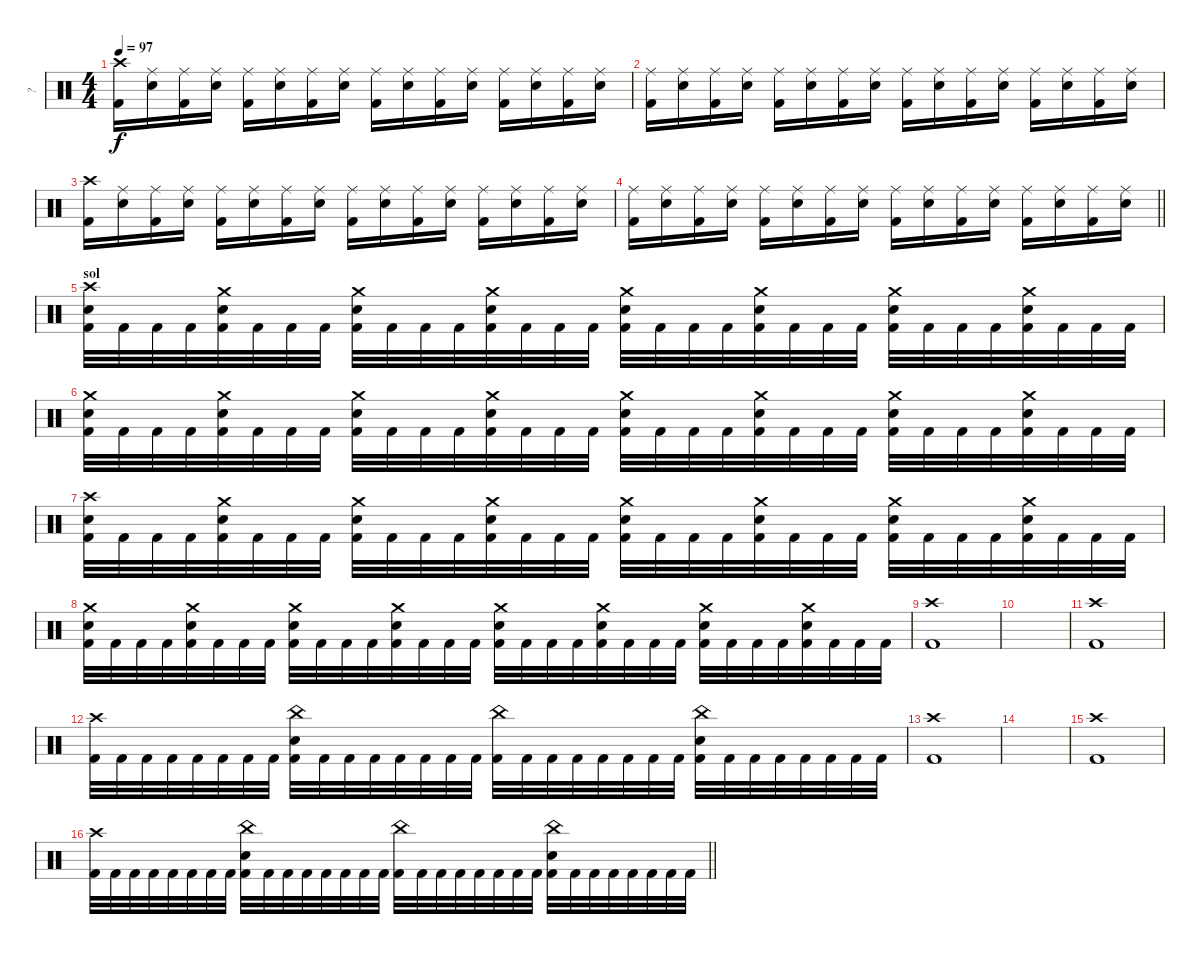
\track ("?" "?") {instrument percussion}
\staff {score}
\articulation defaults
\ts (4 4)
\tempo 97
\clef neutral
\ks c
("Crash high (hit)" "Kick (hit) 2").16{dy f} ("Ride (middle)" "Electric Snare (hit)").16 ("Ride (middle)" "Kick (hit) 2").16 ("Ride (middle)" "Electric Snare (hit)").16 ("Ride (middle)" "Kick (hit) 2").16 ("Ride (middle)" "Electric Snare (hit)").16 ("Ride (middle)" "Kick (hit) 2").16 ("Ride (middle)" "Electric Snare (hit)").16 ("Ride (middle)" "Kick (hit) 2").16 ("Ride (middle)" "Electric Snare (hit)").16 ("Ride (middle)" "Kick (hit) 2").16 ("Ride (middle)" "Electric Snare (hit)").16 ("Ride (middle)" "Kick (hit) 2").16 ("Ride (middle)" "Electric Snare (hit)").16 ("Ride (middle)" "Kick (hit) 2").16 ("Ride (middle)" "Electric Snare (hit)").16 |
("Ride (middle)" "Kick (hit) 2").16 ("Ride (middle)" "Electric Snare (hit)").16 ("Ride (middle)" "Kick (hit) 2").16 ("Ride (middle)" "Electric Snare (hit)").16 ("Ride (middle)" "Kick (hit) 2").16 ("Ride (middle)" "Electric Snare (hit)").16 ("Ride (middle)" "Kick (hit) 2").16 ("Ride (middle)" "Electric Snare (hit)").16 ("Ride (middle)" "Kick (hit) 2").16 ("Ride (middle)" "Electric Snare (hit)").16 ("Ride (middle)" "Kick (hit) 2").16 ("Ride (middle)" "Electric Snare (hit)").16 ("Ride (middle)" "Kick (hit) 2").16 ("Ride (middle)" "Electric Snare (hit)").16 ("Ride (middle)" "Kick (hit) 2").16 ("Ride (middle)" "Electric Snare (hit)").16 |
("Crash high (hit)" "Kick (hit) 2").16 ("Ride (middle)" "Electric Snare (hit)").16 ("Ride (middle)" "Kick (hit) 2").16 ("Ride (middle)" "Electric Snare (hit)").16 ("Ride (middle)" "Kick (hit) 2").16 ("Ride (middle)" "Electric Snare (hit)").16 ("Ride (middle)" "Kick (hit) 2").16 ("Ride (middle)" "Electric Snare (hit)").16 ("Ride (middle)" "Kick (hit) 2").16 ("Ride (middle)" "Electric Snare (hit)").16 ("Ride (middle)" "Kick (hit) 2").16 ("Ride (middle)" "Electric Snare (hit)").16 ("Ride (middle)" "Kick (hit) 2").16 ("Ride (middle)" "Electric Snare (hit)").16 ("Ride (middle)" "Kick (hit) 2").16 ("Ride (middle)" "Electric Snare (hit)").16 |
\barLineRight lightlight
("Ride (middle)" "Kick (hit) 2").16 ("Ride (middle)" "Electric Snare (hit)").16 ("Ride (middle)" "Kick (hit) 2").16 ("Ride (middle)" "Electric Snare (hit)").16 ("Ride (middle)" "Kick (hit) 2").16 ("Ride (middle)" "Electric Snare (hit)").16 ("Ride (middle)" "Kick (hit) 2").16 ("Ride (middle)" "Electric Snare (hit)").16 ("Ride (middle)" "Kick (hit) 2").16 ("Ride (middle)" "Electric Snare (hit)").16 ("Ride (middle)" "Kick (hit) 2").16 ("Ride (middle)" "Electric Snare (hit)").16 ("Ride (middle)" "Kick (hit) 2").16 ("Ride (middle)" "Electric Snare (hit)").16 ("Ride (middle)" "Kick (hit) 2").16 ("Ride (middle)" "Electric Snare (hit)").16 |
\section ("" "sol")
("Crash high (hit)" "Electric Snare (hit)" "Kick (hit) 2").32 "Kick (hit) 2".32 "Kick (hit) 2".32 "Kick (hit) 2".32 ("Crash medium (hit)" "Electric Snare (hit)" "Kick (hit) 2").32 "Kick (hit) 2".32 "Kick (hit) 2".32 "Kick (hit) 2".32 ("Crash medium (hit)" "Electric Snare (hit)" "Kick (hit) 2").32 "Kick (hit) 2".32 "Kick (hit) 2".32 "Kick (hit) 2".32 ("Crash medium (hit)" "Electric Snare (hit)" "Kick (hit) 2").32 "Kick (hit) 2".32 "Kick (hit) 2".32 "Kick (hit) 2".32 ("Crash medium (hit)" "Electric Snare (hit)" "Kick (hit) 2").32 "Kick (hit) 2".32 "Kick (hit) 2".32 "Kick (hit) 2".32 ("Crash medium (hit)" "Electric Snare (hit)" "Kick (hit) 2").32 "Kick (hit) 2".32 "Kick (hit) 2".32 "Kick (hit) 2".32 ("Crash medium (hit)" "Electric Snare (hit)" "Kick (hit) 2").32 "Kick (hit) 2".32 "Kick (hit) 2".32 "Kick (hit) 2".32 ("Crash medium (hit)" "Electric Snare (hit)" "Kick (hit) 2").32 "Kick (hit) 2".32 "Kick (hit) 2".32 "Kick (hit) 2".32 |
("Crash medium (hit)" "Electric Snare (hit)" "Kick (hit) 2").32 "Kick (hit) 2".32 "Kick (hit) 2".32 "Kick (hit) 2".32 ("Crash medium (hit)" "Electric Snare (hit)" "Kick (hit) 2").32 "Kick (hit) 2".32 "Kick (hit) 2".32 "Kick (hit) 2".32 ("Crash medium (hit)" "Electric Snare (hit)" "Kick (hit) 2").32 "Kick (hit) 2".32 "Kick (hit) 2".32 "Kick (hit) 2".32 ("Crash medium (hit)" "Electric Snare (hit)" "Kick (hit) 2").32 "Kick (hit) 2".32 "Kick (hit) 2".32 "Kick (hit) 2".32 ("Crash medium (hit)" "Electric Snare (hit)" "Kick (hit) 2").32 "Kick (hit) 2".32 "Kick (hit) 2".32 "Kick (hit) 2".32 ("Crash medium (hit)" "Electric Snare (hit)" "Kick (hit) 2").32 "Kick (hit) 2".32 "Kick (hit) 2".32 "Kick (hit) 2".32 ("Crash medium (hit)" "Electric Snare (hit)" "Kick (hit) 2").32 "Kick (hit) 2".32 "Kick (hit) 2".32 "Kick (hit) 2".32 ("Crash medium (hit)" "Electric Snare (hit)" "Kick (hit) 2").32 "Kick (hit) 2".32 "Kick (hit) 2".32 "Kick (hit) 2".32 |
("Crash high (hit)" "Electric Snare (hit)" "Kick (hit) 2").32 "Kick (hit) 2".32 "Kick (hit) 2".32 "Kick (hit) 2".32 ("Crash medium (hit)" "Electric Snare (hit)" "Kick (hit) 2").32 "Kick (hit) 2".32 "Kick (hit) 2".32 "Kick (hit) 2".32 ("Crash medium (hit)" "Electric Snare (hit)" "Kick (hit) 2").32 "Kick (hit) 2".32 "Kick (hit) 2".32 "Kick (hit) 2".32 ("Crash medium (hit)" "Electric Snare (hit)" "Kick (hit) 2").32 "Kick (hit) 2".32 "Kick (hit) 2".32 "Kick (hit) 2".32 ("Crash medium (hit)" "Electric Snare (hit)" "Kick (hit) 2").32 "Kick (hit) 2".32 "Kick (hit) 2".32 "Kick (hit) 2".32 ("Crash medium (hit)" "Electric Snare (hit)" "Kick (hit) 2").32 "Kick (hit) 2".32 "Kick (hit) 2".32 "Kick (hit) 2".32 ("Crash medium (hit)" "Electric Snare (hit)" "Kick (hit) 2").32 "Kick (hit) 2".32 "Kick (hit) 2".32 "Kick (hit) 2".32 ("Crash medium (hit)" "Electric Snare (hit)" "Kick (hit) 2").32 "Kick (hit) 2".32 "Kick (hit) 2".32 "Kick (hit) 2".32 |
("Crash medium (hit)" "Electric Snare (hit)" "Kick (hit) 2").32 "Kick (hit) 2".32 "Kick (hit) 2".32 "Kick (hit) 2".32 ("Crash medium (hit)" "Electric Snare (hit)" "Kick (hit) 2").32 "Kick (hit) 2".32 "Kick (hit) 2".32 "Kick (hit) 2".32 ("Crash medium (hit)" "Electric Snare (hit)" "Kick (hit) 2").32 "Kick (hit) 2".32 "Kick (hit) 2".32 "Kick (hit) 2".32 ("Crash medium (hit)" "Electric Snare (hit)" "Kick (hit) 2").32 "Kick (hit) 2".32 "Kick (hit) 2".32 "Kick (hit) 2".32 ("Crash medium (hit)" "Electric Snare (hit)" "Kick (hit) 2").32 "Kick (hit) 2".32 "Kick (hit) 2".32 "Kick (hit) 2".32 ("Crash medium (hit)" "Electric Snare (hit)" "Kick (hit) 2").32 "Kick (hit) 2".32 "Kick (hit) 2".32 "Kick (hit) 2".32 ("Crash medium (hit)" "Electric Snare (hit)" "Kick (hit) 2").32 "Kick (hit) 2".32 "Kick (hit) 2".32 "Kick (hit) 2".32 ("Crash medium (hit)" "Electric Snare (hit)" "Kick (hit) 2").32 "Kick (hit) 2".32 "Kick (hit) 2".32 "Kick (hit) 2".32 |
("Crash high (hit)" "Kick (hit) 2").1 |
|
("Crash high (hit)" "Kick (hit) 2").1 |
("Crash high (hit)" "Kick (hit) 2").32 "Kick (hit) 2".32 "Kick (hit) 2".32 "Kick (hit) 2".32 "Kick (hit) 2".32 "Kick (hit) 2".32 "Kick (hit) 2".32 "Kick (hit) 2".32 ("China (hit)" "Electric Snare (hit)" "Kick (hit) 2").32 "Kick (hit) 2".32 "Kick (hit) 2".32 "Kick (hit) 2".32 "Kick (hit) 2".32 "Kick (hit) 2".32 "Kick (hit) 2".32 "Kick (hit) 2".32 ("China (hit)" "Kick (hit) 2").32 "Kick (hit) 2".32 "Kick (hit) 2".32 "Kick (hit) 2".32 "Kick (hit) 2".32 "Kick (hit) 2".32 "Kick (hit) 2".32 "Kick (hit) 2".32 ("China (hit)" "Electric Snare (hit)" "Kick (hit) 2").32 "Kick (hit) 2".32 "Kick (hit) 2".32 "Kick (hit) 2".32 "Kick (hit) 2".32 "Kick (hit) 2".32 "Kick (hit) 2".32 "Kick (hit) 2".32 |
("Crash high (hit)" "Kick (hit) 2").1 |
|
("Crash high (hit)" "Kick (hit) 2").1 |
\barLineRight lightlight
("Crash high (hit)" "Kick (hit) 2").32 "Kick (hit) 2".32 "Kick (hit) 2".32 "Kick (hit) 2".32 "Kick (hit) 2".32 "Kick (hit) 2".32 "Kick (hit) 2".32 "Kick (hit) 2".32 ("China (hit)" "Electric Snare (hit)" "Kick (hit) 2").32 "Kick (hit) 2".32 "Kick (hit) 2".32 "Kick (hit) 2".32 "Kick (hit) 2".32 "Kick (hit) 2".32 "Kick (hit) 2".32 "Kick (hit) 2".32 ("China (hit)" "Kick (hit) 2").32 "Kick (hit) 2".32 "Kick (hit) 2".32 "Kick (hit) 2".32 "Kick (hit) 2".32 "Kick (hit) 2".32 "Kick (hit) 2".32 "Kick (hit) 2".32 ("China (hit)" "Electric Snare (hit)" "Kick (hit) 2").32 "Kick (hit) 2".32 "Kick (hit) 2".32 "Kick (hit) 2".32 "Kick (hit) 2".32 "Kick (hit) 2".32 "Kick (hit) 2".32 "Kick (hit) 2".32
